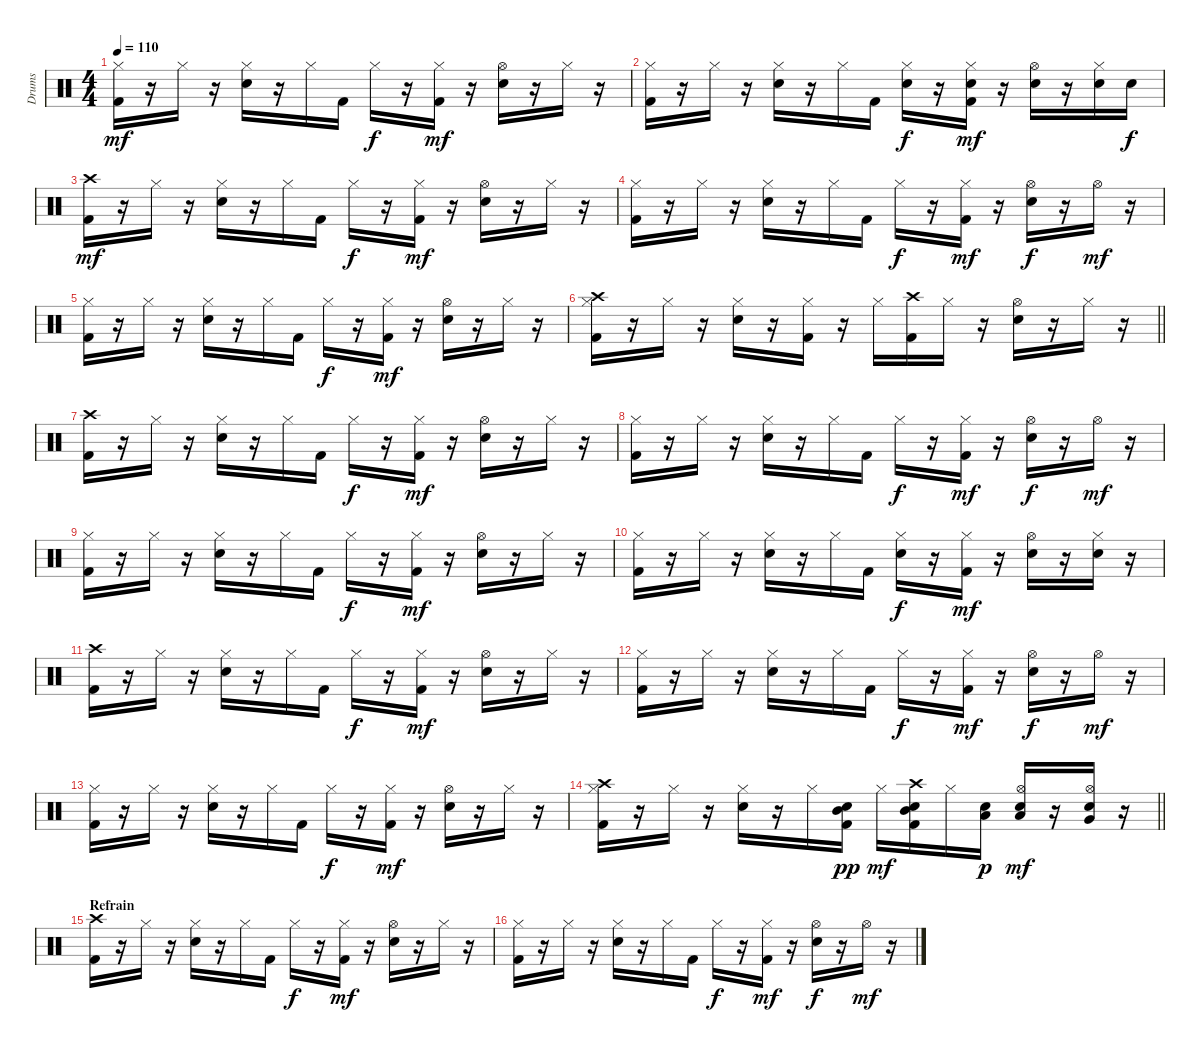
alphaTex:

\track ("Drums" "Drums") {instrument percussion}
\staff {score}
\articulation defaults
\ts (4 4)
\tempo 110
\clef neutral
\ks c
("Kick (hit) 2" "Hi-Hat (closed)").16{dy mf} r.16 "Hi-Hat (closed)".16 r.16 ("Snare (hit) 2" "Hi-Hat (closed)").16 r.16 "Hi-Hat (closed)".16 "Kick (hit) 2".16 "Hi-Hat (closed)".16{dy f} r.16 ("Kick (hit) 2" "Hi-Hat (closed)").16{dy mf} r.16 ("Snare (hit) 2" "Hi-Hat (open)").16 r.16 "Hi-Hat (closed)".16 r.16 |
("Kick (hit) 2" "Hi-Hat (closed)").16 r.16 "Hi-Hat (closed)".16 r.16 ("Snare (hit) 2" "Hi-Hat (closed)").16 r.16 "Hi-Hat (closed)".16 "Kick (hit) 2".16 ("Snare (hit) 2" "Hi-Hat (closed)").16{dy f} r.16 ("Kick (hit) 2" "Snare (hit) 2" "Hi-Hat (closed)").16{dy mf} r.16 ("Snare (hit) 2" "Hi-Hat (open)").16 r.16 ("Snare (hit) 2" "Hi-Hat (closed)").16 "Snare (hit) 2".16{dy f} |
("Kick (hit) 2" "Crash high (hit)").16{dy mf} r.16 "Hi-Hat (closed)".16 r.16 ("Snare (hit) 2" "Hi-Hat (closed)").16 r.16 "Hi-Hat (closed)".16 "Kick (hit) 2".16 "Hi-Hat (closed)".16{dy f} r.16 ("Kick (hit) 2" "Hi-Hat (closed)").16{dy mf} r.16 ("Snare (hit) 2" "Hi-Hat (open)").16 r.16 "Hi-Hat (closed)".16 r.16 |
("Kick (hit) 2" "Hi-Hat (closed)").16 r.16 "Hi-Hat (closed)".16 r.16 ("Snare (hit) 2" "Hi-Hat (closed)").16 r.16 "Hi-Hat (closed)".16 "Kick (hit) 2".16 "Hi-Hat (closed)".16{dy f} r.16 ("Kick (hit) 2" "Hi-Hat (closed)").16{dy mf} r.16 ("Snare (hit) 2" "Hi-Hat (open)").16{dy f} r.16 "Hi-Hat (open)".16{dy mf} r.16 |
("Kick (hit) 2" "Hi-Hat (closed)").16 r.16 "Hi-Hat (closed)".16 r.16 ("Snare (hit) 2" "Hi-Hat (closed)").16 r.16 "Hi-Hat (closed)".16 "Kick (hit) 2".16 "Hi-Hat (closed)".16{dy f} r.16 ("Kick (hit) 2" "Hi-Hat (closed)").16{dy mf} r.16 ("Snare (hit) 2" "Hi-Hat (open)").16 r.16 "Hi-Hat (closed)".16 r.16 |
\barLineRight lightlight
("Kick (hit) 2" "Hi-Hat (closed)" "Crash high (hit)").16 r.16 "Hi-Hat (closed)".16 r.16 ("Snare (hit) 2" "Hi-Hat (closed)").16 r.16 ("Kick (hit) 2" "Hi-Hat (closed)").16 r.16 "Hi-Hat (closed)".16 ("Kick (hit) 2" "Crash high (hit)").16 "Hi-Hat (closed)".16 r.16 ("Snare (hit) 2" "Hi-Hat (open)").16 r.16 "Hi-Hat (closed)".16 r.16 |
("Kick (hit) 2" "Crash high (hit)").16 r.16 "Hi-Hat (closed)".16 r.16 ("Snare (hit) 2" "Hi-Hat (closed)").16 r.16 "Hi-Hat (closed)".16 "Kick (hit) 2".16 "Hi-Hat (closed)".16{dy f} r.16 ("Kick (hit) 2" "Hi-Hat (closed)").16{dy mf} r.16 ("Snare (hit) 2" "Hi-Hat (open)").16 r.16 "Hi-Hat (closed)".16 r.16 |
("Kick (hit) 2" "Hi-Hat (closed)").16 r.16 "Hi-Hat (closed)".16 r.16 ("Snare (hit) 2" "Hi-Hat (closed)").16 r.16 "Hi-Hat (closed)".16 "Kick (hit) 2".16 "Hi-Hat (closed)".16{dy f} r.16 ("Kick (hit) 2" "Hi-Hat (closed)").16{dy mf} r.16 ("Snare (hit) 2" "Hi-Hat (open)").16{dy f} r.16 "Hi-Hat (open)".16{dy mf} r.16 |
("Kick (hit) 2" "Hi-Hat (closed)").16 r.16 "Hi-Hat (closed)".16 r.16 ("Snare (hit) 2" "Hi-Hat (closed)").16 r.16 "Hi-Hat (closed)".16 "Kick (hit) 2".16 "Hi-Hat (closed)".16{dy f} r.16 ("Kick (hit) 2" "Hi-Hat (closed)").16{dy mf} r.16 ("Snare (hit) 2" "Hi-Hat (open)").16 r.16 "Hi-Hat (closed)".16 r.16 |
("Kick (hit) 2" "Hi-Hat (closed)").16 r.16 "Hi-Hat (closed)".16 r.16 ("Snare (hit) 2" "Hi-Hat (closed)").16 r.16 "Hi-Hat (closed)".16 "Kick (hit) 2".16 ("Snare (hit) 2" "Hi-Hat (closed)").16{dy f} r.16 ("Kick (hit) 2" "Hi-Hat (closed)").16{dy mf} r.16 ("Snare (hit) 2" "Hi-Hat (open)").16 r.16 ("Snare (hit) 2" "Hi-Hat (closed)").16 r.16 |
("Kick (hit) 2" "Crash high (hit)").16 r.16 "Hi-Hat (closed)".16 r.16 ("Snare (hit) 2" "Hi-Hat (closed)").16 r.16 "Hi-Hat (closed)".16 "Kick (hit) 2".16 "Hi-Hat (closed)".16{dy f} r.16 ("Kick (hit) 2" "Hi-Hat (closed)").16{dy mf} r.16 ("Snare (hit) 2" "Hi-Hat (open)").16 r.16 "Hi-Hat (closed)".16 r.16 |
("Kick (hit) 2" "Hi-Hat (closed)").16 r.16 "Hi-Hat (closed)".16 r.16 ("Snare (hit) 2" "Hi-Hat (closed)").16 r.16 "Hi-Hat (closed)".16 "Kick (hit) 2".16 "Hi-Hat (closed)".16{dy f} r.16 ("Kick (hit) 2" "Hi-Hat (closed)").16{dy mf} r.16 ("Snare (hit) 2" "Hi-Hat (open)").16{dy f} r.16 "Hi-Hat (open)".16{dy mf} r.16 |
("Kick (hit) 2" "Hi-Hat (closed)").16 r.16 "Hi-Hat (closed)".16 r.16 ("Snare (hit) 2" "Hi-Hat (closed)").16 r.16 "Hi-Hat (closed)".16 "Kick (hit) 2".16 "Hi-Hat (closed)".16{dy f} r.16 ("Kick (hit) 2" "Hi-Hat (closed)").16{dy mf} r.16 ("Snare (hit) 2" "Hi-Hat (open)").16 r.16 "Hi-Hat (closed)".16 r.16 |
\barLineRight lightlight
("Kick (hit) 2" "Hi-Hat (closed)" "Crash high (hit)").16 r.16 "Hi-Hat (closed)".16 r.16 ("Snare (hit) 2" "Hi-Hat (closed)").16 r.16 "Hi-Hat (closed)".16 ("Kick (hit) 2" "Snare (hit) 2" "Mid Tom (hit)").16{dy pp} "Hi-Hat (closed)".16{dy mf} ("Kick (hit) 2" "Snare (hit) 2" "Mid Tom (hit)" "Crash high (hit)").16 "Hi-Hat (closed)".16 ("Snare (hit) 2" "Low Tom (hit)").16{dy p} ("Snare (hit) 2" "Low Tom (hit)" "Hi-Hat (open)").16{dy mf} r.16 ("Snare (hit) 2" "Very Low Tom (hit)" "Hi-Hat (open)").16 r.16 |
\section ("" "Refrain")
("Kick (hit) 2" "Crash high (hit)").16 r.16 "Hi-Hat (closed)".16 r.16 ("Snare (hit) 2" "Hi-Hat (closed)").16 r.16 "Hi-Hat (closed)".16 "Kick (hit) 2".16 "Hi-Hat (closed)".16{dy f} r.16 ("Kick (hit) 2" "Hi-Hat (closed)").16{dy mf} r.16 ("Snare (hit) 2" "Hi-Hat (open)").16 r.16 "Hi-Hat (closed)".16 r.16 |
("Kick (hit) 2" "Hi-Hat (closed)").16 r.16 "Hi-Hat (closed)".16 r.16 ("Snare (hit) 2" "Hi-Hat (closed)").16 r.16 "Hi-Hat (closed)".16 "Kick (hit) 2".16 "Hi-Hat (closed)".16{dy f} r.16 ("Kick (hit) 2" "Hi-Hat (closed)").16{dy mf} r.16 ("Snare (hit) 2" "Hi-Hat (open)").16{dy f} r.16 "Hi-Hat (open)".16{dy mf} r.16
